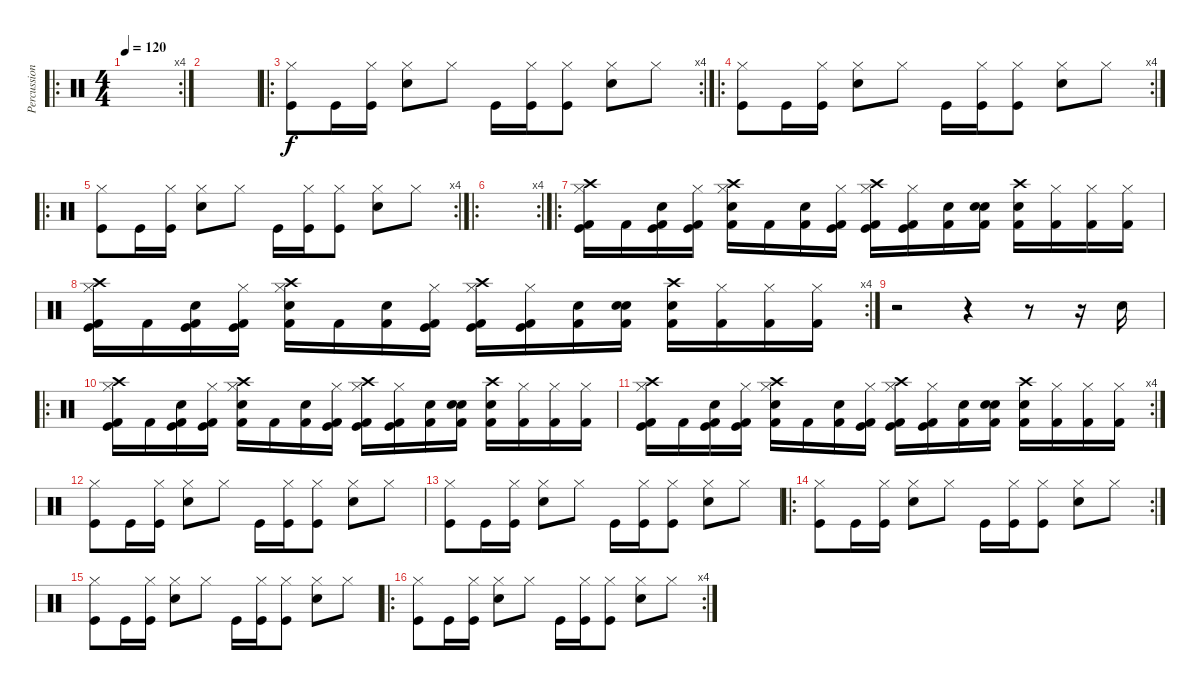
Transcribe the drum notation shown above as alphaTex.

\track ("Percussions" "Percussion") {instrument percussion}
\staff {score}
\articulation defaults
\ro
\rc 4
\ts (4 4)
\tempo 120
\clef neutral
\ks c
|
|
\ro
\rc 4
("Hi-Hat (closed)" "Kick (hit)").8 "Kick (hit)".16 ("Hi-Hat (closed)" "Kick (hit)").16 ("Hi-Hat (closed)" "Snare (hit) 2").8 "Hi-Hat (closed)".8 "Kick (hit)".16 ("Hi-Hat (closed)" "Kick (hit)").16 ("Hi-Hat (closed)" "Kick (hit)").8 ("Hi-Hat (closed)" "Snare (hit) 2").8 "Hi-Hat (closed)".8 |
\ro
\rc 4
("Hi-Hat (closed)" "Kick (hit)").8 "Kick (hit)".16 ("Hi-Hat (closed)" "Kick (hit)").16 ("Hi-Hat (closed)" "Snare (hit) 2").8 "Hi-Hat (closed)".8 "Kick (hit)".16 ("Hi-Hat (closed)" "Kick (hit)").16 ("Hi-Hat (closed)" "Kick (hit)").8 ("Hi-Hat (closed)" "Snare (hit) 2").8 "Hi-Hat (closed)".8 |
\ro
\rc 4
("Hi-Hat (closed)" "Kick (hit)").8 "Kick (hit)".16 ("Hi-Hat (closed)" "Kick (hit)").16 ("Hi-Hat (closed)" "Snare (hit) 2").8 "Hi-Hat (closed)".8 "Kick (hit)".16 ("Hi-Hat (closed)" "Kick (hit)").16 ("Hi-Hat (closed)" "Kick (hit)").8 ("Hi-Hat (closed)" "Snare (hit) 2").8 "Hi-Hat (closed)".8 |
\ro
\rc 4
|
\ro
("Hi-Hat (closed)" "Crash high (hit)" "Kick (hit) 2" "Kick (hit)").16 "Kick (hit) 2".16 ("Snare (hit)" "Kick (hit) 2" "Kick (hit)").16 ("Hi-Hat (closed)" "Kick (hit) 2" "Kick (hit)").16 ("Hi-Hat (closed)" "Crash high (hit)" "Snare (hit) 2" "Kick (hit) 2").16 "Kick (hit) 2".16 ("Snare (hit)" "Kick (hit) 2").16 ("Hi-Hat (closed)" "Kick (hit) 2" "Kick (hit)").16 ("Hi-Hat (closed)" "Crash high (hit)" "Kick (hit) 2" "Kick (hit)").16 ("Hi-Hat (closed)" "Kick (hit) 2" "Kick (hit)").16 ("Snare (hit)" "Kick (hit) 2").16 ("Snare (hit)" "Snare (hit) 2" "Kick (hit) 2").16 ("Snare (hit)" "Crash high (hit)" "Kick (hit) 2").16 ("Hi-Hat (closed)" "Kick (hit) 2").16 ("Hi-Hat (closed)" "Kick (hit) 2").16 ("Hi-Hat (closed)" "Kick (hit) 2").16 |
\rc 4
("Hi-Hat (closed)" "Crash high (hit)" "Kick (hit) 2" "Kick (hit)").16 "Kick (hit) 2".16 ("Snare (hit)" "Kick (hit) 2" "Kick (hit)").16 ("Hi-Hat (closed)" "Kick (hit) 2" "Kick (hit)").16 ("Hi-Hat (closed)" "Crash high (hit)" "Snare (hit) 2" "Kick (hit) 2").16 "Kick (hit) 2".16 ("Snare (hit)" "Kick (hit) 2").16 ("Hi-Hat (closed)" "Kick (hit) 2" "Kick (hit)").16 ("Hi-Hat (closed)" "Crash high (hit)" "Kick (hit) 2" "Kick (hit)").16 ("Hi-Hat (closed)" "Kick (hit) 2" "Kick (hit)").16 ("Snare (hit)" "Kick (hit) 2").16 ("Snare (hit)" "Snare (hit) 2" "Kick (hit) 2").16 ("Snare (hit)" "Crash high (hit)" "Kick (hit) 2").16 ("Hi-Hat (closed)" "Kick (hit) 2").16 ("Hi-Hat (closed)" "Kick (hit) 2").16 ("Hi-Hat (closed)" "Kick (hit) 2").16 |
r.2 r.4 r.8 r.16 "Snare (hit) 2".16 |
\ro
("Hi-Hat (closed)" "Crash high (hit)" "Kick (hit) 2" "Kick (hit)").16 "Kick (hit) 2".16 ("Snare (hit)" "Kick (hit) 2" "Kick (hit)").16 ("Hi-Hat (closed)" "Kick (hit) 2" "Kick (hit)").16 ("Hi-Hat (closed)" "Crash high (hit)" "Snare (hit) 2" "Kick (hit) 2").16 "Kick (hit) 2".16 ("Snare (hit)" "Kick (hit) 2").16 ("Hi-Hat (closed)" "Kick (hit) 2" "Kick (hit)").16 ("Hi-Hat (closed)" "Crash high (hit)" "Kick (hit) 2" "Kick (hit)").16 ("Hi-Hat (closed)" "Kick (hit) 2" "Kick (hit)").16 ("Snare (hit)" "Kick (hit) 2").16 ("Snare (hit)" "Snare (hit) 2" "Kick (hit) 2").16 ("Snare (hit)" "Crash high (hit)" "Kick (hit) 2").16 ("Hi-Hat (closed)" "Kick (hit) 2").16 ("Hi-Hat (closed)" "Kick (hit) 2").16 ("Hi-Hat (closed)" "Kick (hit) 2").16 |
\rc 4
("Hi-Hat (closed)" "Crash high (hit)" "Kick (hit) 2" "Kick (hit)").16 "Kick (hit) 2".16 ("Snare (hit)" "Kick (hit) 2" "Kick (hit)").16 ("Hi-Hat (closed)" "Kick (hit) 2" "Kick (hit)").16 ("Hi-Hat (closed)" "Crash high (hit)" "Snare (hit) 2" "Kick (hit) 2").16 "Kick (hit) 2".16 ("Snare (hit)" "Kick (hit) 2").16 ("Hi-Hat (closed)" "Kick (hit) 2" "Kick (hit)").16 ("Hi-Hat (closed)" "Crash high (hit)" "Kick (hit) 2" "Kick (hit)").16 ("Hi-Hat (closed)" "Kick (hit) 2" "Kick (hit)").16 ("Snare (hit)" "Kick (hit) 2").16 ("Snare (hit)" "Snare (hit) 2" "Kick (hit) 2").16 ("Snare (hit)" "Crash high (hit)" "Kick (hit) 2").16 ("Hi-Hat (closed)" "Kick (hit) 2").16 ("Hi-Hat (closed)" "Kick (hit) 2").16 ("Hi-Hat (closed)" "Kick (hit) 2").16 |
("Hi-Hat (closed)" "Kick (hit)").8 "Kick (hit)".16 ("Hi-Hat (closed)" "Kick (hit)").16 ("Hi-Hat (closed)" "Snare (hit) 2").8 "Hi-Hat (closed)".8 "Kick (hit)".16 ("Hi-Hat (closed)" "Kick (hit)").16 ("Hi-Hat (closed)" "Kick (hit)").8 ("Hi-Hat (closed)" "Snare (hit) 2").8 "Hi-Hat (closed)".8 |
("Hi-Hat (closed)" "Kick (hit)").8 "Kick (hit)".16 ("Hi-Hat (closed)" "Kick (hit)").16 ("Hi-Hat (closed)" "Snare (hit) 2").8 "Hi-Hat (closed)".8 "Kick (hit)".16 ("Hi-Hat (closed)" "Kick (hit)").16 ("Hi-Hat (closed)" "Kick (hit)").8 ("Hi-Hat (closed)" "Snare (hit) 2").8 "Hi-Hat (closed)".8 |
\ro
\rc 2
("Hi-Hat (closed)" "Kick (hit)").8 "Kick (hit)".16 ("Hi-Hat (closed)" "Kick (hit)").16 ("Hi-Hat (closed)" "Snare (hit) 2").8 "Hi-Hat (closed)".8 "Kick (hit)".16 ("Hi-Hat (closed)" "Kick (hit)").16 ("Hi-Hat (closed)" "Kick (hit)").8 ("Hi-Hat (closed)" "Snare (hit) 2").8 "Hi-Hat (closed)".8 |
("Hi-Hat (closed)" "Kick (hit)").8 "Kick (hit)".16 ("Hi-Hat (closed)" "Kick (hit)").16 ("Hi-Hat (closed)" "Snare (hit) 2").8 "Hi-Hat (closed)".8 "Kick (hit)".16 ("Hi-Hat (closed)" "Kick (hit)").16 ("Hi-Hat (closed)" "Kick (hit)").8 ("Hi-Hat (closed)" "Snare (hit) 2").8 "Hi-Hat (closed)".8 |
\ro
\rc 4
("Hi-Hat (closed)" "Kick (hit)").8 "Kick (hit)".16 ("Hi-Hat (closed)" "Kick (hit)").16 ("Hi-Hat (closed)" "Snare (hit) 2").8 "Hi-Hat (closed)".8 "Kick (hit)".16 ("Hi-Hat (closed)" "Kick (hit)").16 ("Hi-Hat (closed)" "Kick (hit)").8 ("Hi-Hat (closed)" "Snare (hit) 2").8 "Hi-Hat (closed)".8
